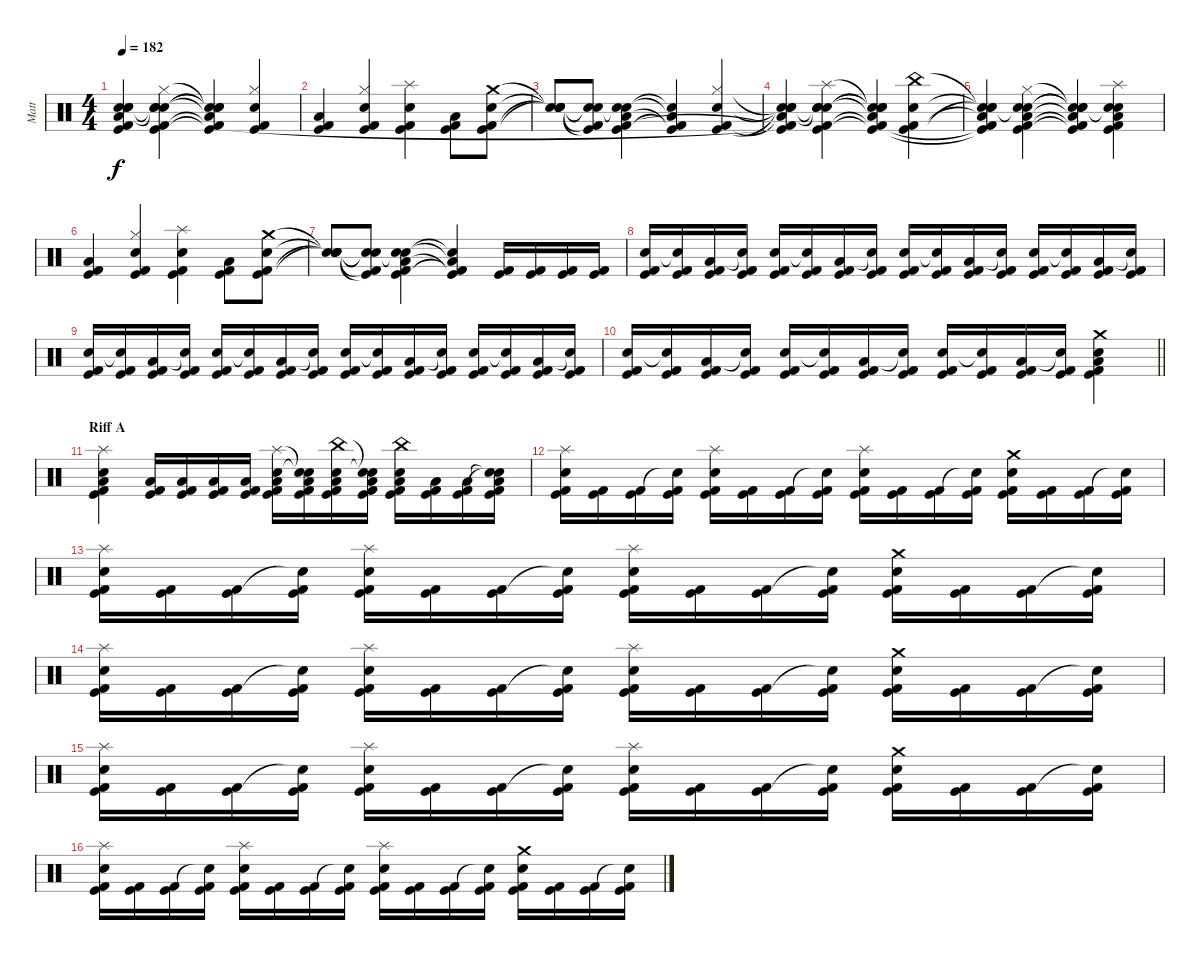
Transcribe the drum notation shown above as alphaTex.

\track ("Matt" "Matt") {instrument percussion}
\staff {score}
\articulation defaults
\ts (4 4)
\tempo 182
\clef neutral
\ks c
("Snare (hit)"{t} "Snare (hit)"{t} "Snare (hit)"{t} "Low Floor Tom (hit)"{t} "Kick (hit)"{t} "Kick (hit) 2"{t}).4{dy f} ("Hi-Hat (closed)" "Snare (hit)"{t} "Electric Snare (hit)" "Snare (hit)"{t} "Kick (hit)" "Kick (hit) 2").4 ("Snare (hit)"{t} "Snare (hit)"{t} "Snare (hit)"{t} "Low Floor Tom (hit)"{t} "Kick (hit)"{t} "Kick (hit) 2"{t}).4 ("Hi-Hat (closed)" "Electric Snare (hit)" "Kick (hit)" "Kick (hit) 2").4 |
("Low Floor Tom (hit)" "Kick (hit)" "Kick (hit) 2").4 ("Hi-Hat (closed)" "Electric Snare (hit)" "Kick (hit)" "Kick (hit) 2").4 ("Splash (hit)" "Electric Snare (hit)" "Kick (hit)" "Kick (hit) 2").4 ("Low Floor Tom (hit)" "Kick (hit)" "Kick (hit) 2").8 ("Crash medium (hit)" "Electric Snare (hit)" "Kick (hit)" "Kick (hit) 2").8 |
("Snare (hit)"{t} "Snare (hit)"{t} "Snare (hit)"{t} "Snare (hit)"{t}).8 ("Snare (hit)"{t} "Snare (hit)"{t} "Kick (hit)"{t} "Kick (hit) 2"{t}).8 ("Snare (hit)"{t} "Electric Snare (hit)" "Low Floor Tom (hit)" "Kick (hit)" "Kick (hit) 2").4 ("Snare (hit)"{t} "Low Floor Tom (hit)"{t} "Kick (hit)"{t} "Kick (hit) 2"{t}).4 ("Hi-Hat (closed)" "Electric Snare (hit)" "Kick (hit)" "Kick (hit) 2").4 |
("Snare (hit)"{t} "Snare (hit)"{t} "Snare (hit)"{t} "Low Floor Tom (hit)"{t} "Kick (hit)"{t} "Kick (hit) 2"{t}).4 ("Splash (hit)" "Snare (hit)"{t} "Electric Snare (hit)" "Snare (hit)"{t} "Kick (hit)" "Kick (hit) 2").4 ("Snare (hit)"{t} "Snare (hit)"{t} "Snare (hit)"{t} "Low Floor Tom (hit)"{t} "Kick (hit)"{t} "Kick (hit) 2"{t}).4 ("China (hit)" "Electric Snare (hit)" "Kick (hit)" "Kick (hit) 2").4 |
("Snare (hit)"{t} "Snare (hit)"{t} "Snare (hit)"{t} "Low Floor Tom (hit)"{t} "Kick (hit)"{t} "Kick (hit) 2"{t}).4 ("Hi-Hat (closed)" "Snare (hit)"{t} "Electric Snare (hit)" "Low Floor Tom (hit)" "Kick (hit)" "Kick (hit) 2").4 ("Snare (hit)"{t} "Snare (hit)"{t} "Snare (hit)"{t} "Low Floor Tom (hit)"{t} "Kick (hit)"{t} "Kick (hit) 2"{t}).4 ("Splash (hit)" "Snare (hit)"{t} "Electric Snare (hit)" "Low Floor Tom (hit)" "Kick (hit)" "Kick (hit) 2").4 |
("Low Floor Tom (hit)" "Kick (hit)" "Kick (hit) 2").4 ("Hi-Hat (closed)" "Electric Snare (hit)" "Kick (hit)" "Kick (hit) 2").4 ("Splash (hit)" "Electric Snare (hit)" "Kick (hit)" "Kick (hit) 2").4 ("Low Floor Tom (hit)" "Kick (hit)" "Kick (hit) 2").8 ("Crash medium (hit)" "Electric Snare (hit)" "Kick (hit)" "Kick (hit) 2").8 |
("Snare (hit)"{t} "Snare (hit)"{t} "Snare (hit)"{t} "Snare (hit)"{t}).8 ("Snare (hit)"{t} "Snare (hit)"{t} "Kick (hit)"{t} "Kick (hit) 2"{t}).8 ("Snare (hit)"{t} "Electric Snare (hit)" "Low Floor Tom (hit)" "Kick (hit)" "Kick (hit) 2").4 ("Snare (hit)"{t} "Low Floor Tom (hit)"{t} "Kick (hit)"{t} "Kick (hit) 2"{t}).4 ("Kick (hit)" "Kick (hit) 2").16 ("Kick (hit)" "Kick (hit) 2").16 ("Kick (hit)" "Kick (hit) 2").16 ("Kick (hit)" "Kick (hit) 2").16 |
("Electric Snare (hit)" "Kick (hit)" "Kick (hit) 2").16 ("Snare (hit)"{t} "Kick (hit)" "Kick (hit) 2").16 ("Low Floor Tom (hit)" "Kick (hit)" "Kick (hit) 2").16 ("Snare (hit)"{t} "Kick (hit)" "Kick (hit) 2").16 ("Electric Snare (hit)" "Kick (hit)" "Kick (hit) 2").16 ("Snare (hit)"{t} "Kick (hit)" "Kick (hit) 2").16 ("Low Floor Tom (hit)" "Kick (hit)" "Kick (hit) 2").16 ("Snare (hit)"{t} "Kick (hit)" "Kick (hit) 2").16 ("Electric Snare (hit)" "Kick (hit)" "Kick (hit) 2").16 ("Snare (hit)"{t} "Kick (hit)" "Kick (hit) 2").16 ("Low Floor Tom (hit)" "Kick (hit)" "Kick (hit) 2").16 ("Snare (hit)"{t} "Kick (hit)" "Kick (hit) 2").16 ("Electric Snare (hit)" "Kick (hit)" "Kick (hit) 2").16 ("Snare (hit)"{t} "Kick (hit)" "Kick (hit) 2").16 ("Low Floor Tom (hit)" "Kick (hit)" "Kick (hit) 2").16 ("Snare (hit)"{t} "Kick (hit)" "Kick (hit) 2").16 |
("Electric Snare (hit)" "Kick (hit)" "Kick (hit) 2").16 ("Snare (hit)"{t} "Kick (hit)" "Kick (hit) 2").16 ("Low Floor Tom (hit)" "Kick (hit)" "Kick (hit) 2").16 ("Snare (hit)"{t} "Kick (hit)" "Kick (hit) 2").16 ("Electric Snare (hit)" "Kick (hit)" "Kick (hit) 2").16 ("Snare (hit)"{t} "Kick (hit)" "Kick (hit) 2").16 ("Low Floor Tom (hit)" "Kick (hit)" "Kick (hit) 2").16 ("Snare (hit)"{t} "Kick (hit)" "Kick (hit) 2").16 ("Electric Snare (hit)" "Kick (hit)" "Kick (hit) 2").16 ("Snare (hit)"{t} "Kick (hit)" "Kick (hit) 2").16 ("Low Floor Tom (hit)" "Kick (hit)" "Kick (hit) 2").16 ("Snare (hit)"{t} "Kick (hit)" "Kick (hit) 2").16 ("Electric Snare (hit)" "Kick (hit)" "Kick (hit) 2").16 ("Snare (hit)"{t} "Kick (hit)" "Kick (hit) 2").16 ("Low Floor Tom (hit)" "Kick (hit)" "Kick (hit) 2").16 ("Snare (hit)"{t} "Kick (hit)" "Kick (hit) 2").16 |
\barLineRight lightlight
("Electric Snare (hit)" "Kick (hit)" "Kick (hit) 2").16 ("Snare (hit)"{t} "Kick (hit)" "Kick (hit) 2").16 ("Low Floor Tom (hit)" "Kick (hit)" "Kick (hit) 2").16 ("Snare (hit)"{t} "Kick (hit)" "Kick (hit) 2").16 ("Electric Snare (hit)" "Kick (hit)" "Kick (hit) 2").16 ("Snare (hit)"{t} "Kick (hit)" "Kick (hit) 2").16 ("Low Floor Tom (hit)" "Kick (hit)" "Kick (hit) 2").16 ("Snare (hit)"{t} "Kick (hit)" "Kick (hit) 2").16 ("Electric Snare (hit)" "Kick (hit)" "Kick (hit) 2").16 ("Snare (hit)"{t} "Kick (hit)" "Kick (hit) 2").16 ("Low Floor Tom (hit)" "Kick (hit)" "Kick (hit) 2").16 ("Snare (hit)"{t} "Kick (hit)" "Kick (hit) 2").16 ("Crash medium (hit)" "Electric Snare (hit)" "Low Floor Tom (hit)" "Kick (hit)" "Kick (hit) 2").4 |
\section ("" "Riff A")
("Splash (hit)" "Electric Snare (hit)" "Low Floor Tom (hit)" "Kick (hit)" "Kick (hit) 2").4 ("Low Floor Tom (hit)" "Kick (hit)" "Kick (hit) 2").16 ("Low Floor Tom (hit)" "Kick (hit)" "Kick (hit) 2").16 ("Low Floor Tom (hit)" "Kick (hit)" "Kick (hit) 2").16 ("Low Floor Tom (hit)" "Kick (hit)" "Kick (hit) 2").16 ("Splash (hit)" "Electric Snare (hit)" "Low Floor Tom (hit)" "Kick (hit)" "Kick (hit) 2").16 ("Snare (hit)"{t} "Snare (hit)"{t} "Low Floor Tom (hit)" "Kick (hit)" "Kick (hit) 2").16 ("China (hit)" "Electric Snare (hit)" "Low Floor Tom (hit)" "Kick (hit)" "Kick (hit) 2").16 ("Snare (hit)"{t} "Snare (hit)"{t} "Low Floor Tom (hit)" "Kick (hit)" "Kick (hit) 2").16 ("China (hit)" "Electric Snare (hit)" "Low Floor Tom (hit)" "Kick (hit)" "Kick (hit) 2").16 ("Low Floor Tom (hit)" "Kick (hit)" "Kick (hit) 2").16 ("Low Floor Tom (hit)" "Kick (hit)" "Kick (hit) 2").16 ("Snare (hit)"{t} "Snare (hit)"{t} "Low Floor Tom (hit)" "Kick (hit)" "Kick (hit) 2").16 |
("Splash (hit)" "Electric Snare (hit)" "Kick (hit)" "Kick (hit) 2").16 ("Kick (hit)" "Kick (hit) 2").16 ("Kick (hit)" "Kick (hit) 2").16 ("Snare (hit)"{t} "Kick (hit)" "Kick (hit) 2").16 ("Splash (hit)" "Electric Snare (hit)" "Kick (hit)" "Kick (hit) 2").16 ("Kick (hit)" "Kick (hit) 2").16 ("Kick (hit)" "Kick (hit) 2").16 ("Snare (hit)"{t} "Kick (hit)" "Kick (hit) 2").16 ("Splash (hit)" "Electric Snare (hit)" "Kick (hit)" "Kick (hit) 2").16 ("Kick (hit)" "Kick (hit) 2").16 ("Kick (hit)" "Kick (hit) 2").16 ("Snare (hit)"{t} "Kick (hit)" "Kick (hit) 2").16 ("Crash medium (hit)" "Electric Snare (hit)" "Kick (hit)" "Kick (hit) 2").16 ("Kick (hit)" "Kick (hit) 2").16 ("Kick (hit)" "Kick (hit) 2").16 ("Snare (hit)"{t} "Kick (hit)" "Kick (hit) 2").16 |
("Splash (hit)" "Electric Snare (hit)" "Kick (hit)" "Kick (hit) 2").16 ("Kick (hit)" "Kick (hit) 2").16 ("Kick (hit)" "Kick (hit) 2").16 ("Snare (hit)"{t} "Kick (hit)" "Kick (hit) 2").16 ("Splash (hit)" "Electric Snare (hit)" "Kick (hit)" "Kick (hit) 2").16 ("Kick (hit)" "Kick (hit) 2").16 ("Kick (hit)" "Kick (hit) 2").16 ("Snare (hit)"{t} "Kick (hit)" "Kick (hit) 2").16 ("Splash (hit)" "Electric Snare (hit)" "Kick (hit)" "Kick (hit) 2").16 ("Kick (hit)" "Kick (hit) 2").16 ("Kick (hit)" "Kick (hit) 2").16 ("Snare (hit)"{t} "Kick (hit)" "Kick (hit) 2").16 ("Crash medium (hit)" "Electric Snare (hit)" "Kick (hit)" "Kick (hit) 2").16 ("Kick (hit)" "Kick (hit) 2").16 ("Kick (hit)" "Kick (hit) 2").16 ("Snare (hit)"{t} "Kick (hit)" "Kick (hit) 2").16 |
("Splash (hit)" "Electric Snare (hit)" "Kick (hit)" "Kick (hit) 2").16 ("Kick (hit)" "Kick (hit) 2").16 ("Kick (hit)" "Kick (hit) 2").16 ("Snare (hit)"{t} "Kick (hit)" "Kick (hit) 2").16 ("Splash (hit)" "Electric Snare (hit)" "Kick (hit)" "Kick (hit) 2").16 ("Kick (hit)" "Kick (hit) 2").16 ("Kick (hit)" "Kick (hit) 2").16 ("Snare (hit)"{t} "Kick (hit)" "Kick (hit) 2").16 ("Splash (hit)" "Electric Snare (hit)" "Kick (hit)" "Kick (hit) 2").16 ("Kick (hit)" "Kick (hit) 2").16 ("Kick (hit)" "Kick (hit) 2").16 ("Snare (hit)"{t} "Kick (hit)" "Kick (hit) 2").16 ("Crash medium (hit)" "Electric Snare (hit)" "Kick (hit)" "Kick (hit) 2").16 ("Kick (hit)" "Kick (hit) 2").16 ("Kick (hit)" "Kick (hit) 2").16 ("Snare (hit)"{t} "Kick (hit)" "Kick (hit) 2").16 |
("Splash (hit)" "Electric Snare (hit)" "Kick (hit)" "Kick (hit) 2").16 ("Kick (hit)" "Kick (hit) 2").16 ("Kick (hit)" "Kick (hit) 2").16 ("Snare (hit)"{t} "Kick (hit)" "Kick (hit) 2").16 ("Splash (hit)" "Electric Snare (hit)" "Kick (hit)" "Kick (hit) 2").16 ("Kick (hit)" "Kick (hit) 2").16 ("Kick (hit)" "Kick (hit) 2").16 ("Snare (hit)"{t} "Kick (hit)" "Kick (hit) 2").16 ("Splash (hit)" "Electric Snare (hit)" "Kick (hit)" "Kick (hit) 2").16 ("Kick (hit)" "Kick (hit) 2").16 ("Kick (hit)" "Kick (hit) 2").16 ("Snare (hit)"{t} "Kick (hit)" "Kick (hit) 2").16 ("Crash medium (hit)" "Electric Snare (hit)" "Kick (hit)" "Kick (hit) 2").16 ("Kick (hit)" "Kick (hit) 2").16 ("Kick (hit)" "Kick (hit) 2").16 ("Snare (hit)"{t} "Kick (hit)" "Kick (hit) 2").16 |
("Splash (hit)" "Electric Snare (hit)" "Kick (hit)" "Kick (hit) 2").16 ("Kick (hit)" "Kick (hit) 2").16 ("Kick (hit)" "Kick (hit) 2").16 ("Snare (hit)"{t} "Kick (hit)" "Kick (hit) 2").16 ("Splash (hit)" "Electric Snare (hit)" "Kick (hit)" "Kick (hit) 2").16 ("Kick (hit)" "Kick (hit) 2").16 ("Kick (hit)" "Kick (hit) 2").16 ("Snare (hit)"{t} "Kick (hit)" "Kick (hit) 2").16 ("Splash (hit)" "Electric Snare (hit)" "Kick (hit)" "Kick (hit) 2").16 ("Kick (hit)" "Kick (hit) 2").16 ("Kick (hit)" "Kick (hit) 2").16 ("Snare (hit)"{t} "Kick (hit)" "Kick (hit) 2").16 ("Crash medium (hit)" "Electric Snare (hit)" "Kick (hit)" "Kick (hit) 2").16 ("Kick (hit)" "Kick (hit) 2").16 ("Kick (hit)" "Kick (hit) 2").16 ("Snare (hit)"{t} "Kick (hit)" "Kick (hit) 2").16
